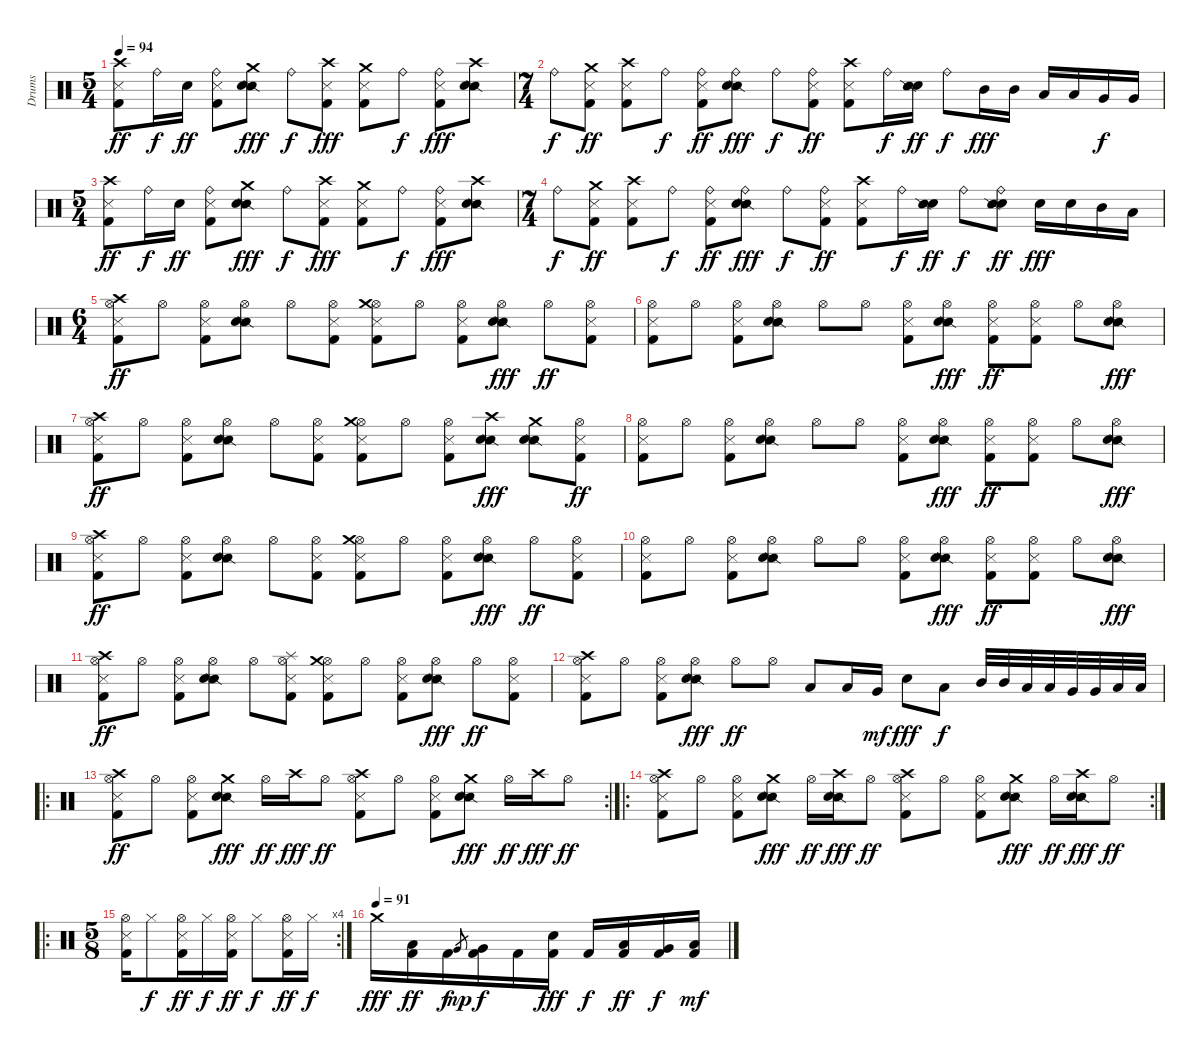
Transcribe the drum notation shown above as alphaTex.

\track ("Drums" "Drums") {instrument percussion}
\staff {score}
\articulation defaults
\ts (5 4)
\tempo 94
\clef neutral
\ks c
("Crash high (hit)" "Metronome (hit)" "Kick (hit) 2").8{dy ff} "Ride (bell)".16{dy f} "Electric Snare (hit)".16{dy ff} ("Ride (bell)" "Metronome (hit)" "Kick (hit) 2").8 ("Crash medium (hit)" "Snare (side stick) 2" "Electric Snare (hit)").8{dy fff} "Ride (bell)".8{dy f} ("Crash high (hit)" "Metronome (hit)" "Kick (hit) 2").8{dy fff} ("Crash medium (hit)" "Metronome (hit)" "Kick (hit) 2").8 "Ride (bell)".8{dy f} ("Ride (bell)" "Metronome (hit)" "Kick (hit) 2").8{dy fff} ("Crash high (hit)" "Snare (side stick) 2" "Electric Snare (hit)").8 |
\ts (7 4)
"Ride (bell)".8{dy f} ("Crash medium (hit)" "Metronome (hit)" "Kick (hit) 2").8{dy ff} ("Crash high (hit)" "Metronome (hit)" "Kick (hit) 2").8 "Ride (bell)".8{dy f} ("Ride (bell)" "Metronome (hit)" "Kick (hit) 2").8{dy ff} ("Ride (bell)" "Snare (side stick) 2" "Electric Snare (hit)").8{dy fff} "Ride (bell)".8{dy f} ("Ride (bell)" "Metronome (hit)" "Kick (hit) 2").8{dy ff} ("Crash high (hit)" "Metronome (hit)" "Kick (hit) 2").8 "Ride (bell)".16{dy f} ("Electric Snare (hit)" "Snare (side stick) 2").16{dy ff} "Ride (bell)".8{dy f} "Mid Tom (hit)".16{dy fff} "Mid Tom (hit)".16 "Low Tom (hit)".16 "Low Tom (hit)".16 "Very Low Tom (hit)".16{dy f} "Very Low Tom (hit)".16 |
\ts (5 4)
("Crash high (hit)" "Metronome (hit)" "Kick (hit) 2").8{dy ff} "Ride (bell)".16{dy f} "Electric Snare (hit)".16{dy ff} ("Ride (bell)" "Metronome (hit)" "Kick (hit) 2").8 ("Crash medium (hit)" "Snare (side stick) 2" "Electric Snare (hit)").8{dy fff} "Ride (bell)".8{dy f} ("Crash high (hit)" "Metronome (hit)" "Kick (hit) 2").8{dy fff} ("Crash medium (hit)" "Metronome (hit)" "Kick (hit) 2").8 "Ride (bell)".8{dy f} ("Ride (bell)" "Metronome (hit)" "Kick (hit) 2").8{dy fff} ("Crash high (hit)" "Snare (side stick) 2" "Electric Snare (hit)").8 |
\ts (7 4)
"Ride (bell)".8{dy f} ("Crash medium (hit)" "Metronome (hit)" "Kick (hit) 2").8{dy ff} ("Crash high (hit)" "Metronome (hit)" "Kick (hit) 2").8 "Ride (bell)".8{dy f} ("Ride (bell)" "Metronome (hit)" "Kick (hit) 2").8{dy ff} ("Ride (bell)" "Snare (side stick) 2" "Electric Snare (hit)").8{dy fff} "Ride (bell)".8{dy f} ("Ride (bell)" "Metronome (hit)" "Kick (hit) 2").8{dy ff} ("Crash high (hit)" "Metronome (hit)" "Kick (hit) 2").8 "Ride (bell)".16{dy f} ("Electric Snare (hit)" "Snare (side stick) 2").16{dy ff} "Ride (bell)".8{dy f} ("Ride (bell)" "Electric Snare (hit)" "Snare (side stick) 2").8{dy ff} "Electric Snare (hit)".16{dy fff} "Electric Snare (hit)".16 "Mid Tom (hit)".16 "Low Tom (hit)".16 |
\ts (6 4)
("Hi-Hat (open)" "Crash high (hit)" "Metronome (hit)" "Kick (hit) 2").8{dy ff} "Hi-Hat (open)".8 ("Hi-Hat (open)" "Metronome (hit)" "Kick (hit) 2").8 ("Hi-Hat (open)" "Snare (side stick) 2" "Electric Snare (hit)").8 "Hi-Hat (open)".8 ("Hi-Hat (open)" "Metronome (hit)" "Kick (hit) 2").8 ("Hi-Hat (open)" "Crash medium (hit)" "Metronome (hit)" "Kick (hit) 2").8 "Hi-Hat (open)".8 ("Hi-Hat (open)" "Metronome (hit)" "Kick (hit) 2").8 ("Hi-Hat (open)" "Snare (side stick) 2" "Electric Snare (hit)").8{dy fff} "Hi-Hat (open)".8{dy ff} ("Hi-Hat (open)" "Metronome (hit)" "Kick (hit) 2").8 |
("Hi-Hat (open)" "Metronome (hit)" "Kick (hit) 2").8 "Hi-Hat (open)".8 ("Hi-Hat (open)" "Metronome (hit)" "Kick (hit) 2").8 ("Hi-Hat (open)" "Snare (side stick) 2" "Electric Snare (hit)").8 "Hi-Hat (open)".8 "Hi-Hat (open)".8 ("Hi-Hat (open)" "Metronome (hit)" "Kick (hit) 2").8 ("Hi-Hat (open)" "Snare (side stick) 2" "Electric Snare (hit)").8{dy fff} ("Hi-Hat (open)" "Metronome (hit)" "Kick (hit) 2").8{dy ff} ("Hi-Hat (open)" "Metronome (hit)" "Kick (hit) 2").8 "Hi-Hat (open)".8 ("Hi-Hat (open)" "Snare (side stick) 2" "Electric Snare (hit)").8{dy fff} |
("Hi-Hat (open)" "Crash high (hit)" "Metronome (hit)" "Kick (hit) 2").8{dy ff} "Hi-Hat (open)".8 ("Hi-Hat (open)" "Metronome (hit)" "Kick (hit) 2").8 ("Hi-Hat (open)" "Snare (side stick) 2" "Electric Snare (hit)").8 "Hi-Hat (open)".8 ("Hi-Hat (open)" "Metronome (hit)" "Kick (hit) 2").8 ("Hi-Hat (open)" "Crash medium (hit)" "Metronome (hit)" "Kick (hit) 2").8 "Hi-Hat (open)".8 ("Hi-Hat (open)" "Metronome (hit)" "Kick (hit) 2").8 ("Crash high (hit)" "Snare (side stick) 2" "Electric Snare (hit)").8{dy fff} ("Crash medium (hit)" "Snare (side stick) 2" "Electric Snare (hit)").8 ("Hi-Hat (open)" "Metronome (hit)" "Kick (hit) 2").8{dy ff} |
("Hi-Hat (open)" "Metronome (hit)" "Kick (hit) 2").8 "Hi-Hat (open)".8 ("Hi-Hat (open)" "Metronome (hit)" "Kick (hit) 2").8 ("Hi-Hat (open)" "Snare (side stick) 2" "Electric Snare (hit)").8 "Hi-Hat (open)".8 "Hi-Hat (open)".8 ("Hi-Hat (open)" "Metronome (hit)" "Kick (hit) 2").8 ("Hi-Hat (open)" "Snare (side stick) 2" "Electric Snare (hit)").8{dy fff} ("Hi-Hat (open)" "Metronome (hit)" "Kick (hit) 2").8{dy ff} ("Hi-Hat (open)" "Metronome (hit)" "Kick (hit) 2").8 "Hi-Hat (open)".8 ("Hi-Hat (open)" "Snare (side stick) 2" "Electric Snare (hit)").8{dy fff} |
("Hi-Hat (open)" "Crash high (hit)" "Metronome (hit)" "Kick (hit) 2").8{dy ff} "Hi-Hat (open)".8 ("Hi-Hat (open)" "Metronome (hit)" "Kick (hit) 2").8 ("Hi-Hat (open)" "Snare (side stick) 2" "Electric Snare (hit)").8 "Hi-Hat (open)".8 ("Hi-Hat (open)" "Metronome (hit)" "Kick (hit) 2").8 ("Hi-Hat (open)" "Crash medium (hit)" "Metronome (hit)" "Kick (hit) 2").8 "Hi-Hat (open)".8 ("Hi-Hat (open)" "Metronome (hit)" "Kick (hit) 2").8 ("Hi-Hat (open)" "Snare (side stick) 2" "Electric Snare (hit)").8{dy fff} "Hi-Hat (open)".8{dy ff} ("Hi-Hat (open)" "Metronome (hit)" "Kick (hit) 2").8 |
("Hi-Hat (open)" "Metronome (hit)" "Kick (hit) 2").8 "Hi-Hat (open)".8 ("Hi-Hat (open)" "Metronome (hit)" "Kick (hit) 2").8 ("Hi-Hat (open)" "Snare (side stick) 2" "Electric Snare (hit)").8 "Hi-Hat (open)".8 "Hi-Hat (open)".8 ("Hi-Hat (open)" "Metronome (hit)" "Kick (hit) 2").8 ("Hi-Hat (open)" "Snare (side stick) 2" "Electric Snare (hit)").8{dy fff} ("Hi-Hat (open)" "Metronome (hit)" "Kick (hit) 2").8{dy ff} ("Hi-Hat (open)" "Metronome (hit)" "Kick (hit) 2").8 "Hi-Hat (open)".8 ("Hi-Hat (open)" "Snare (side stick) 2" "Electric Snare (hit)").8{dy fff} |
("Hi-Hat (open)" "Crash high (hit)" "Metronome (hit)" "Kick (hit) 2").8{dy ff} "Hi-Hat (open)".8 ("Hi-Hat (open)" "Metronome (hit)" "Kick (hit) 2").8 ("Hi-Hat (open)" "Snare (side stick) 2" "Electric Snare (hit)").8 "Hi-Hat (open)".8 ("Hi-Hat (open)" "Splash (hit)" "Metronome (hit)" "Kick (hit) 2").8 ("Hi-Hat (open)" "Crash medium (hit)" "Metronome (hit)" "Kick (hit) 2").8 "Hi-Hat (open)".8 ("Hi-Hat (open)" "Metronome (hit)" "Kick (hit) 2").8 ("Hi-Hat (open)" "Snare (side stick) 2" "Electric Snare (hit)").8{dy fff} "Hi-Hat (open)".8{dy ff} ("Hi-Hat (open)" "Metronome (hit)" "Kick (hit) 2").8 |
("Hi-Hat (open)" "Crash high (hit)" "Metronome (hit)" "Kick (hit) 2").8 "Hi-Hat (open)".8 ("Hi-Hat (open)" "Metronome (hit)" "Kick (hit) 2").8 ("Hi-Hat (open)" "Snare (side stick) 2" "Electric Snare (hit)").8{dy fff} "Hi-Hat (open)".8{dy ff} "Hi-Hat (open)".8 "Low Tom (hit)".8 "Low Tom (hit)".16 "Very Low Tom (hit)".16{dy mf} "Electric Snare (hit)".8{dy fff} "Low Floor Tom (hit)".8{dy f} "Mid Tom (hit)".32 "Mid Tom (hit)".32 "Low Tom (hit)".32 "Low Tom (hit)".32 "Very Low Tom (hit)".32 "Very Low Tom (hit)".32 "Low Floor Tom (hit)".32 "Low Floor Tom (hit)".32 |
\ro
\rc 2
("Hi-Hat (open)" "Crash high (hit)" "Metronome (hit)" "Kick (hit) 2").8{dy ff} "Hi-Hat (open)".8 ("Hi-Hat (open)" "Metronome (hit)" "Kick (hit) 2").8 ("Crash medium (hit)" "Snare (side stick) 2" "Electric Snare (hit)").8{dy fff} "Hi-Hat (open)".16{dy ff} "Crash high (hit)".16{dy fff} "Hi-Hat (open)".8{dy ff} ("Hi-Hat (open)" "Crash high (hit)" "Metronome (hit)" "Kick (hit) 2").8 "Hi-Hat (open)".8 ("Hi-Hat (open)" "Metronome (hit)" "Kick (hit) 2").8 ("Crash medium (hit)" "Snare (side stick) 2" "Electric Snare (hit)").8{dy fff} "Hi-Hat (open)".16{dy ff} "Crash high (hit)".16{dy fff} "Hi-Hat (open)".8{dy ff} |
\ro
\rc 2
("Hi-Hat (open)" "Crash high (hit)" "Metronome (hit)" "Kick (hit) 2").8 "Hi-Hat (open)".8 ("Hi-Hat (open)" "Metronome (hit)" "Kick (hit) 2").8 ("Crash medium (hit)" "Snare (side stick) 2" "Electric Snare (hit)").8{dy fff} "Hi-Hat (open)".16{dy ff} ("Crash high (hit)" "Snare (side stick) 2" "Electric Snare (hit)").16{dy fff} "Hi-Hat (open)".8{dy ff} ("Hi-Hat (open)" "Crash high (hit)" "Metronome (hit)" "Kick (hit) 2").8 "Hi-Hat (open)".8 ("Hi-Hat (open)" "Metronome (hit)" "Kick (hit) 2").8 ("Crash medium (hit)" "Snare (side stick) 2" "Electric Snare (hit)").8{dy fff} "Hi-Hat (open)".16{dy ff} ("Crash high (hit)" "Snare (side stick) 2" "Electric Snare (hit)").16{dy fff} "Hi-Hat (open)".8{dy ff} |
\ro
\rc 4
\ts (5 8)
("Hi-Hat (open)" "Metronome (hit)" "Kick (hit) 2").16 "Hi-Hat (closed)".8{dy f} ("Hi-Hat (open)" "Metronome (hit)" "Kick (hit) 2").16{dy ff} "Hi-Hat (closed)".16{dy f} ("Hi-Hat (open)" "Metronome (hit)" "Kick (hit) 2").16{dy ff} "Hi-Hat (closed)".8{dy f} ("Hi-Hat (open)" "Metronome (hit)" "Kick (hit) 2").16{dy ff} "Hi-Hat (closed)".16{dy f} |
\tempo (91)
"Crash medium (hit)".16{dy fff} ("Low Tom (hit)" "Kick (hit) 2").16{dy ff} "Kick (hit) 2".16{dy f} "Very Low Tom (hit)".8{gr dy mp} ("Very Low Tom (hit)" "Kick (hit) 2").16{dy f} "Kick (hit) 2".16 ("Electric Snare (hit)" "Kick (hit) 2").16{dy fff} "Kick (hit) 2".16{dy f} ("Low Tom (hit)" "Kick (hit) 2").16{dy ff} ("Very Low Tom (hit)" "Kick (hit) 2").16{dy f} ("Low Floor Tom (hit)" "Kick (hit) 2").16{dy mf}
